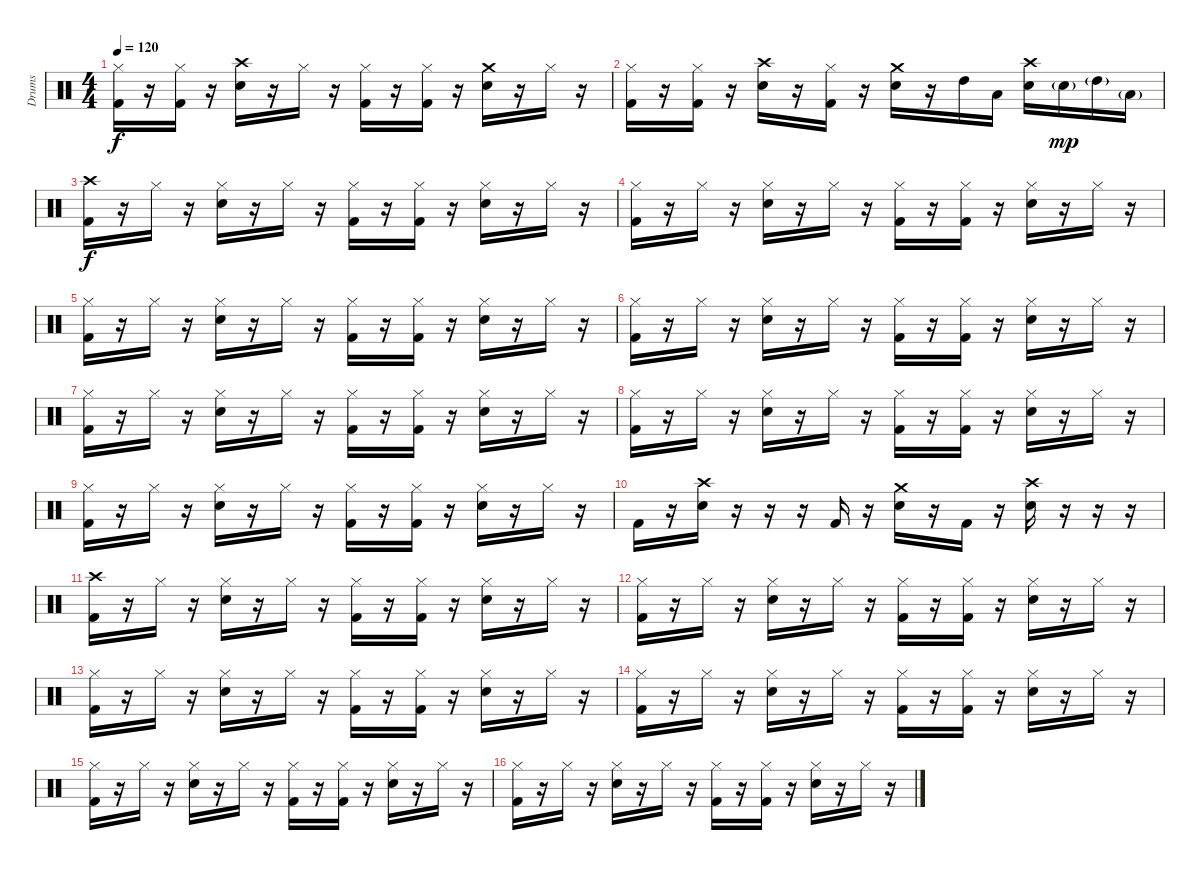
\track ("Drums" "Drums") {instrument percussion}
\staff {score}
\articulation defaults
\ts (4 4)
\tempo 120
\clef neutral
\ks c
("Kick (hit) 2" "Hi-Hat (closed)").16{dy f} r.16 ("Kick (hit) 2" "Hi-Hat (closed)").16 r.16 ("Electric Snare (hit)" "Crash high (hit)").16 r.16 "Hi-Hat (closed)".16 r.16 ("Kick (hit) 2" "Hi-Hat (closed)").16 r.16 ("Kick (hit) 2" "Hi-Hat (closed)").16 r.16 ("Electric Snare (hit)" "Crash medium (hit)").16 r.16 "Hi-Hat (closed)".16 r.16 |
("Kick (hit) 2" "Hi-Hat (closed)").16 r.16 ("Kick (hit) 2" "Hi-Hat (closed)").16 r.16 ("Electric Snare (hit)" "Crash high (hit)").16 r.16 ("Kick (hit) 2" "Hi-Hat (closed)").16 r.16 ("Electric Snare (hit)" "Crash medium (hit)").16 r.16 "High Tom (hit)".16 "Low Tom (hit)".16 ("Electric Snare (hit)" "Crash high (hit)").16 "Electric Snare (hit)"{g}.16{dy mp} "High Tom (hit)"{g}.16 "Low Tom (hit)"{g}.16 |
("Kick (hit) 2" "Crash high (hit)").16{dy f} r.16 "Hi-Hat (closed)".16 r.16 ("Electric Snare (hit)" "Hi-Hat (closed)").16 r.16 "Hi-Hat (closed)".16 r.16 ("Kick (hit) 2" "Hi-Hat (closed)").16 r.16 ("Kick (hit) 2" "Hi-Hat (closed)").16 r.16 ("Electric Snare (hit)" "Hi-Hat (closed)").16 r.16 "Hi-Hat (closed)".16 r.16 |
("Kick (hit) 2" "Hi-Hat (closed)").16 r.16 "Hi-Hat (closed)".16 r.16 ("Electric Snare (hit)" "Hi-Hat (closed)").16 r.16 "Hi-Hat (closed)".16 r.16 ("Kick (hit) 2" "Hi-Hat (closed)").16 r.16 ("Kick (hit) 2" "Hi-Hat (closed)").16 r.16 ("Electric Snare (hit)" "Hi-Hat (closed)").16 r.16 "Hi-Hat (closed)".16 r.16 |
("Kick (hit) 2" "Hi-Hat (closed)").16 r.16 "Hi-Hat (closed)".16 r.16 ("Electric Snare (hit)" "Hi-Hat (closed)").16 r.16 "Hi-Hat (closed)".16 r.16 ("Kick (hit) 2" "Hi-Hat (closed)").16 r.16 ("Kick (hit) 2" "Hi-Hat (closed)").16 r.16 ("Electric Snare (hit)" "Hi-Hat (closed)").16 r.16 "Hi-Hat (closed)".16 r.16 |
("Kick (hit) 2" "Hi-Hat (closed)").16 r.16 "Hi-Hat (closed)".16 r.16 ("Electric Snare (hit)" "Hi-Hat (closed)").16 r.16 "Hi-Hat (closed)".16 r.16 ("Kick (hit) 2" "Hi-Hat (closed)").16 r.16 ("Kick (hit) 2" "Hi-Hat (closed)").16 r.16 ("Electric Snare (hit)" "Hi-Hat (closed)").16 r.16 "Hi-Hat (closed)".16 r.16 |
("Kick (hit) 2" "Hi-Hat (closed)").16 r.16 "Hi-Hat (closed)".16 r.16 ("Electric Snare (hit)" "Hi-Hat (closed)").16 r.16 "Hi-Hat (closed)".16 r.16 ("Kick (hit) 2" "Hi-Hat (closed)").16 r.16 ("Kick (hit) 2" "Hi-Hat (closed)").16 r.16 ("Electric Snare (hit)" "Hi-Hat (closed)").16 r.16 "Hi-Hat (closed)".16 r.16 |
("Kick (hit) 2" "Hi-Hat (closed)").16 r.16 "Hi-Hat (closed)".16 r.16 ("Electric Snare (hit)" "Hi-Hat (closed)").16 r.16 "Hi-Hat (closed)".16 r.16 ("Kick (hit) 2" "Hi-Hat (closed)").16 r.16 ("Kick (hit) 2" "Hi-Hat (closed)").16 r.16 ("Electric Snare (hit)" "Hi-Hat (closed)").16 r.16 "Hi-Hat (closed)".16 r.16 |
("Kick (hit) 2" "Hi-Hat (closed)").16 r.16 "Hi-Hat (closed)".16 r.16 ("Electric Snare (hit)" "Hi-Hat (closed)").16 r.16 "Hi-Hat (closed)".16 r.16 ("Kick (hit) 2" "Hi-Hat (closed)").16 r.16 ("Kick (hit) 2" "Hi-Hat (closed)").16 r.16 ("Electric Snare (hit)" "Hi-Hat (closed)").16 r.16 "Hi-Hat (closed)".16 r.16 |
"Kick (hit) 2".16 r.16 ("Electric Snare (hit)" "Crash high (hit)").16 r.16 r.16 r.16 "Kick (hit) 2".16 r.16 ("Electric Snare (hit)" "Crash medium (hit)").16 r.16 "Kick (hit) 2".16 r.16 ("Electric Snare (hit)" "Crash high (hit)").16 r.16 r.16 r.16 |
("Kick (hit) 2" "Crash high (hit)").16 r.16 "Hi-Hat (closed)".16 r.16 ("Electric Snare (hit)" "Hi-Hat (closed)").16 r.16 "Hi-Hat (closed)".16 r.16 ("Kick (hit) 2" "Hi-Hat (closed)").16 r.16 ("Kick (hit) 2" "Hi-Hat (closed)").16 r.16 ("Electric Snare (hit)" "Hi-Hat (closed)").16 r.16 "Hi-Hat (closed)".16 r.16 |
("Kick (hit) 2" "Hi-Hat (closed)").16 r.16 "Hi-Hat (closed)".16 r.16 ("Electric Snare (hit)" "Hi-Hat (closed)").16 r.16 "Hi-Hat (closed)".16 r.16 ("Kick (hit) 2" "Hi-Hat (closed)").16 r.16 ("Kick (hit) 2" "Hi-Hat (closed)").16 r.16 ("Electric Snare (hit)" "Hi-Hat (closed)").16 r.16 "Hi-Hat (closed)".16 r.16 |
("Kick (hit) 2" "Hi-Hat (closed)").16 r.16 "Hi-Hat (closed)".16 r.16 ("Electric Snare (hit)" "Hi-Hat (closed)").16 r.16 "Hi-Hat (closed)".16 r.16 ("Kick (hit) 2" "Hi-Hat (closed)").16 r.16 ("Kick (hit) 2" "Hi-Hat (closed)").16 r.16 ("Electric Snare (hit)" "Hi-Hat (closed)").16 r.16 "Hi-Hat (closed)".16 r.16 |
("Kick (hit) 2" "Hi-Hat (closed)").16 r.16 "Hi-Hat (closed)".16 r.16 ("Electric Snare (hit)" "Hi-Hat (closed)").16 r.16 "Hi-Hat (closed)".16 r.16 ("Kick (hit) 2" "Hi-Hat (closed)").16 r.16 ("Kick (hit) 2" "Hi-Hat (closed)").16 r.16 ("Electric Snare (hit)" "Hi-Hat (closed)").16 r.16 "Hi-Hat (closed)".16 r.16 |
("Kick (hit) 2" "Hi-Hat (closed)").16 r.16 "Hi-Hat (closed)".16 r.16 ("Electric Snare (hit)" "Hi-Hat (closed)").16 r.16 "Hi-Hat (closed)".16 r.16 ("Kick (hit) 2" "Hi-Hat (closed)").16 r.16 ("Kick (hit) 2" "Hi-Hat (closed)").16 r.16 ("Electric Snare (hit)" "Hi-Hat (closed)").16 r.16 "Hi-Hat (closed)".16 r.16 |
("Kick (hit) 2" "Hi-Hat (closed)").16 r.16 "Hi-Hat (closed)".16 r.16 ("Electric Snare (hit)" "Hi-Hat (closed)").16 r.16 "Hi-Hat (closed)".16 r.16 ("Kick (hit) 2" "Hi-Hat (closed)").16 r.16 ("Kick (hit) 2" "Hi-Hat (closed)").16 r.16 ("Electric Snare (hit)" "Hi-Hat (closed)").16 r.16 "Hi-Hat (closed)".16 r.16
